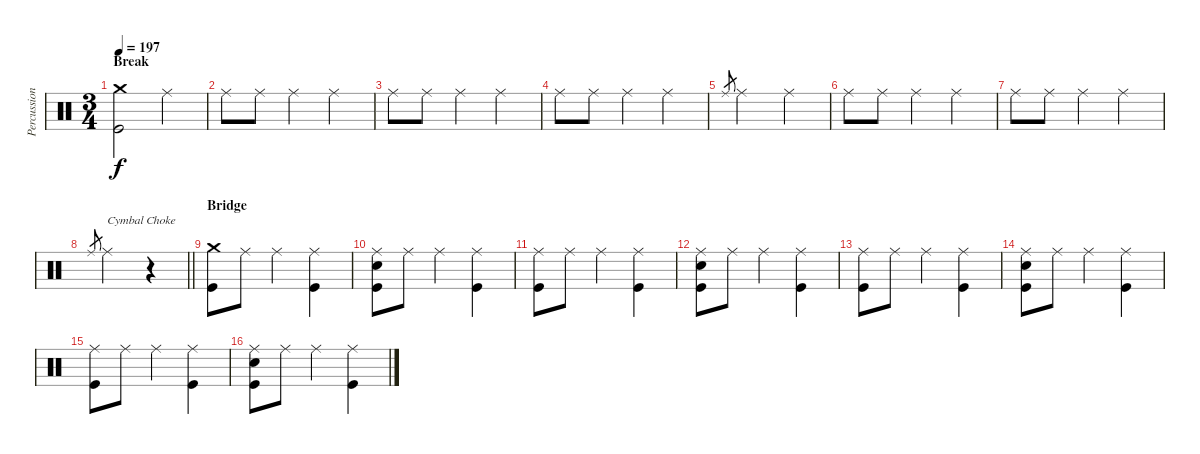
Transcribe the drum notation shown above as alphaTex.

\track ("Percussion" "Percussion") {instrument percussion}
\staff {score}
\articulation defaults
\ts (3 4)
\section ("" "Break")
\tempo 197
\clef neutral
\ks c
("Crash medium (hit)" "Kick (hit)").2{dy f} "Ride (middle)".4 |
"Ride (middle)".8 "Ride (middle)".8 "Ride (middle)".4 "Ride (middle)".4 |
"Ride (middle)".8 "Ride (middle)".8 "Ride (middle)".4 "Ride (middle)".4 |
"Ride (middle)".8 "Ride (middle)".8 "Ride (middle)".4 "Ride (middle)".4 |
"Ride (middle)".8{gr} "Ride (middle)".2 "Ride (middle)".4 |
"Ride (middle)".8 "Ride (middle)".8 "Ride (middle)".4 "Ride (middle)".4 |
"Ride (middle)".8 "Ride (middle)".8 "Ride (middle)".4 "Ride (middle)".4 |
\barLineRight lightlight "Ride (middle)".8{gr} "Ride (middle)".2{txt "Cymbal Choke"}
r.4{volume 0} |
\section ("" "Bridge")
("Crash medium (hit)" "Kick (hit)").8{volume 16} "Ride (middle)".8 "Ride (middle)".4 ("Ride (middle)" "Kick (hit)").4 |
("Ride (middle)" "Electric Snare (hit)" "Kick (hit)").8 "Ride (middle)".8 "Ride (middle)".4 ("Ride (middle)" "Kick (hit)").4 |
("Ride (middle)" "Kick (hit)").8 "Ride (middle)".8 "Ride (middle)".4 ("Ride (middle)" "Kick (hit)").4 |
("Ride (middle)" "Electric Snare (hit)" "Kick (hit)").8 "Ride (middle)".8 "Ride (middle)".4 ("Ride (middle)" "Kick (hit)").4 |
("Ride (middle)" "Kick (hit)").8 "Ride (middle)".8 "Ride (middle)".4 ("Ride (middle)" "Kick (hit)").4 |
("Ride (middle)" "Electric Snare (hit)" "Kick (hit)").8 "Ride (middle)".8 "Ride (middle)".4 ("Ride (middle)" "Kick (hit)").4 |
("Ride (middle)" "Kick (hit)").8 "Ride (middle)".8 "Ride (middle)".4 ("Ride (middle)" "Kick (hit)").4 |
("Ride (middle)" "Electric Snare (hit)" "Kick (hit)").8 "Ride (middle)".8 "Ride (middle)".4 ("Ride (middle)" "Kick (hit)").4
